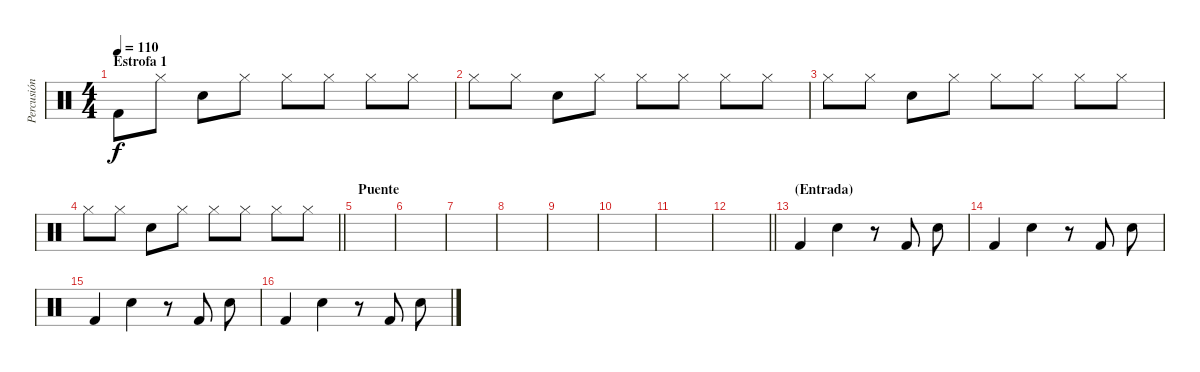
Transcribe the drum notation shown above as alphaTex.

\track ("Percusión" "Percusión") {instrument percussion}
\staff {score}
\articulation defaults
\ts (4 4)
\section ("" "Estrofa 1")
\tempo 110
\clef neutral
\ks c "Kick (hit) 2".8{dy f} "Hi-Hat (closed)".8 "Snare (hit) 2".8 "Hi-Hat (closed)".8 "Hi-Hat (closed)".8 "Hi-Hat (closed)".8 "Hi-Hat (closed)".8 "Hi-Hat (closed)".8
|
"Hi-Hat (closed)".8 "Hi-Hat (closed)".8 "Snare (hit) 2".8 "Hi-Hat (closed)".8 "Hi-Hat (closed)".8 "Hi-Hat (closed)".8 "Hi-Hat (closed)".8 "Hi-Hat (closed)".8 |
"Hi-Hat (closed)".8 "Hi-Hat (closed)".8 "Snare (hit) 2".8 "Hi-Hat (closed)".8 "Hi-Hat (closed)".8 "Hi-Hat (closed)".8 "Hi-Hat (closed)".8 "Hi-Hat (closed)".8 |
\barLineRight lightlight "Hi-Hat (closed)".8 "Hi-Hat (closed)".8 "Snare (hit) 2".8 "Hi-Hat (closed)".8 "Hi-Hat (closed)".8 "Hi-Hat (closed)".8 "Hi-Hat (closed)".8 "Hi-Hat (closed)".8
|
\section ("" "Puente")
|
|
|
|
|
|
|
\barLineRight lightlight
|
\section ("" "(Entrada)")
"Kick (hit) 2".4 "Snare (hit) 2".4 r.8 "Kick (hit) 2".8 "Snare (hit) 2".8 |
"Kick (hit) 2".4 "Snare (hit) 2".4 r.8 "Kick (hit) 2".8 "Snare (hit) 2".8 |
"Kick (hit) 2".4 "Snare (hit) 2".4 r.8 "Kick (hit) 2".8 "Snare (hit) 2".8 |
"Kick (hit) 2".4 "Snare (hit) 2".4 r.8 "Kick (hit) 2".8 "Snare (hit) 2".8
